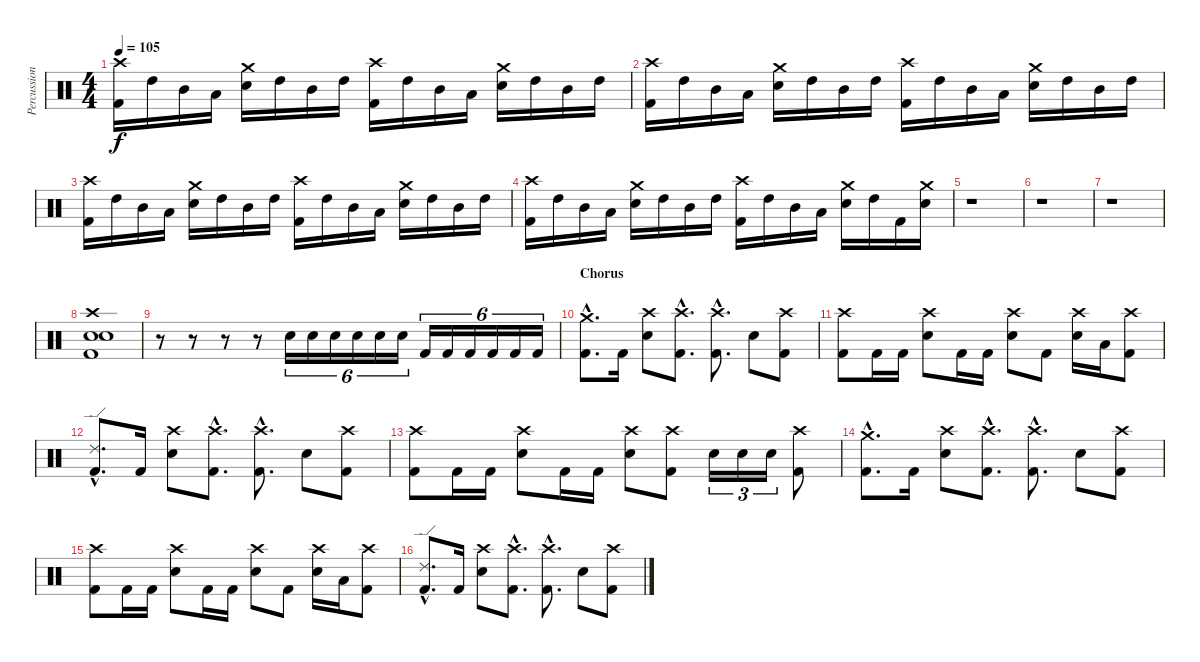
\track ("Percussions" "Percussion") {instrument percussion}
\staff {score}
\articulation defaults
\ts (4 4)
\tempo 105
\clef neutral
\ks c
("Kick (hit) 2" "Crash high (hit)").16{dy f} "High Tom (hit)".16 "Mid Tom (hit)".16 "Low Tom (hit)".16 ("Snare (hit) 2" "Crash medium (hit)").16 "High Tom (hit)".16 "Mid Tom (hit)".16 "High Tom (hit)".16 ("Kick (hit) 2" "Crash high (hit)").16 "High Tom (hit)".16 "Mid Tom (hit)".16 "Low Tom (hit)".16 ("Snare (hit) 2" "Crash medium (hit)").16 "High Tom (hit)".16 "Mid Tom (hit)".16 "High Tom (hit)".16 |
("Kick (hit) 2" "Crash high (hit)").16 "High Tom (hit)".16 "Mid Tom (hit)".16 "Low Tom (hit)".16 ("Snare (hit) 2" "Crash medium (hit)").16 "High Tom (hit)".16 "Mid Tom (hit)".16 "High Tom (hit)".16 ("Kick (hit) 2" "Crash high (hit)").16 "High Tom (hit)".16 "Mid Tom (hit)".16 "Low Tom (hit)".16 ("Snare (hit) 2" "Crash medium (hit)").16 "High Tom (hit)".16 "Mid Tom (hit)".16 "High Tom (hit)".16 |
("Kick (hit) 2" "Crash high (hit)").16 "High Tom (hit)".16 "Mid Tom (hit)".16 "Low Tom (hit)".16 ("Snare (hit) 2" "Crash medium (hit)").16 "High Tom (hit)".16 "Mid Tom (hit)".16 "High Tom (hit)".16 ("Kick (hit) 2" "Crash high (hit)").16 "High Tom (hit)".16 "Mid Tom (hit)".16 "Low Tom (hit)".16 ("Snare (hit) 2" "Crash medium (hit)").16 "High Tom (hit)".16 "Mid Tom (hit)".16 "High Tom (hit)".16 |
("Kick (hit) 2" "Crash high (hit)").16 "High Tom (hit)".16 "Mid Tom (hit)".16 "Low Tom (hit)".16 ("Snare (hit) 2" "Crash medium (hit)").16 "High Tom (hit)".16 "Mid Tom (hit)".16 "High Tom (hit)".16 ("Kick (hit) 2" "Crash high (hit)").16 "High Tom (hit)".16 "Mid Tom (hit)".16 "Low Tom (hit)".16 ("Snare (hit) 2" "Crash medium (hit)").16 "High Tom (hit)".16 "Kick (hit) 2".16 ("Snare (hit) 2" "Crash medium (hit)").16 |
r.1 |
r.1 |
r.1 |
("Kick (hit) 2" "Snare (hit) 2" "Snare (hit) 2" "Crash high (hit)").1 |
r.8 r.8 r.8 r.8 "Snare (hit) 2".16{tu (6 4)} "Snare (hit) 2".16{tu (6 4)} "Snare (hit) 2".16{tu (6 4)} "Snare (hit) 2".16{tu (6 4)} "Snare (hit) 2".16{tu (6 4)} "Snare (hit) 2".16{tu (6 4)} "Kick (hit) 2".16{tu (6 4)} "Kick (hit) 2".16{tu (6 4)} "Kick (hit) 2".16{tu (6 4)} "Kick (hit) 2".16{tu (6 4)} "Kick (hit) 2".16{tu (6 4)} "Kick (hit) 2".16{tu (6 4)} |
\section ("" "Chorus")
("Kick (hit) 2"{hac} "Crash medium (hit)"{hac}).8{d} "Kick (hit) 2".16 ("Snare (hit) 2" "Crash high (hit)").8 ("Kick (hit) 2"{hac} "Crash high (hit)"{hac}).8{d} ("Kick (hit) 2"{hac} "Crash high (hit)"{hac}).8{d} "Snare (hit) 2".8 ("Kick (hit) 2" "Crash high (hit)").8 |
("Kick (hit) 2" "Crash high (hit)").8 "Kick (hit) 2".16 "Kick (hit) 2".16 ("Snare (hit) 2" "Crash high (hit)").8 "Kick (hit) 2".16 "Kick (hit) 2".16 ("Snare (hit) 2" "Crash high (hit)").8 "Kick (hit) 2".8 ("Snare (hit) 2" "Crash high (hit)").16 "Low Tom (hit)".16 ("Kick (hit) 2" "Crash high (hit)").8 |
("Kick (hit) 2"{hac} "Ride (edge) 2"{hac}).8{d} "Kick (hit) 2".16 ("Snare (hit) 2" "Crash high (hit)").8 ("Kick (hit) 2"{hac} "Crash high (hit)"{hac}).8{d} ("Kick (hit) 2"{hac} "Crash high (hit)"{hac}).8{d} "Snare (hit) 2".8 ("Kick (hit) 2" "Crash high (hit)").8 |
("Kick (hit) 2" "Crash high (hit)").8 "Kick (hit) 2".16 "Kick (hit) 2".16 ("Snare (hit) 2" "Crash high (hit)").8 "Kick (hit) 2".16 "Kick (hit) 2".16 ("Snare (hit) 2" "Crash high (hit)").8 ("Kick (hit) 2" "Crash high (hit)").8 "Snare (hit) 2".16{tu (3 2)} "Snare (hit) 2".16{tu (3 2)} "Snare (hit) 2".16{tu (3 2)} ("Kick (hit) 2" "Crash high (hit)").8 |
("Kick (hit) 2"{hac} "Crash medium (hit)"{hac}).8{d} "Kick (hit) 2".16 ("Snare (hit) 2" "Crash high (hit)").8 ("Kick (hit) 2"{hac} "Crash high (hit)"{hac}).8{d} ("Kick (hit) 2"{hac} "Crash high (hit)"{hac}).8{d} "Snare (hit) 2".8 ("Kick (hit) 2" "Crash high (hit)").8 |
("Kick (hit) 2" "Crash high (hit)").8 "Kick (hit) 2".16 "Kick (hit) 2".16 ("Snare (hit) 2" "Crash high (hit)").8 "Kick (hit) 2".16 "Kick (hit) 2".16 ("Snare (hit) 2" "Crash high (hit)").8 "Kick (hit) 2".8 ("Snare (hit) 2" "Crash high (hit)").16 "Low Tom (hit)".16 ("Kick (hit) 2" "Crash high (hit)").8 |
("Kick (hit) 2"{hac} "Ride (edge) 2"{hac}).8{d} "Kick (hit) 2".16 ("Snare (hit) 2" "Crash high (hit)").8 ("Kick (hit) 2"{hac} "Crash high (hit)"{hac}).8{d} ("Kick (hit) 2"{hac} "Crash high (hit)"{hac}).8{d} "Snare (hit) 2".8 ("Kick (hit) 2" "Crash high (hit)").8
